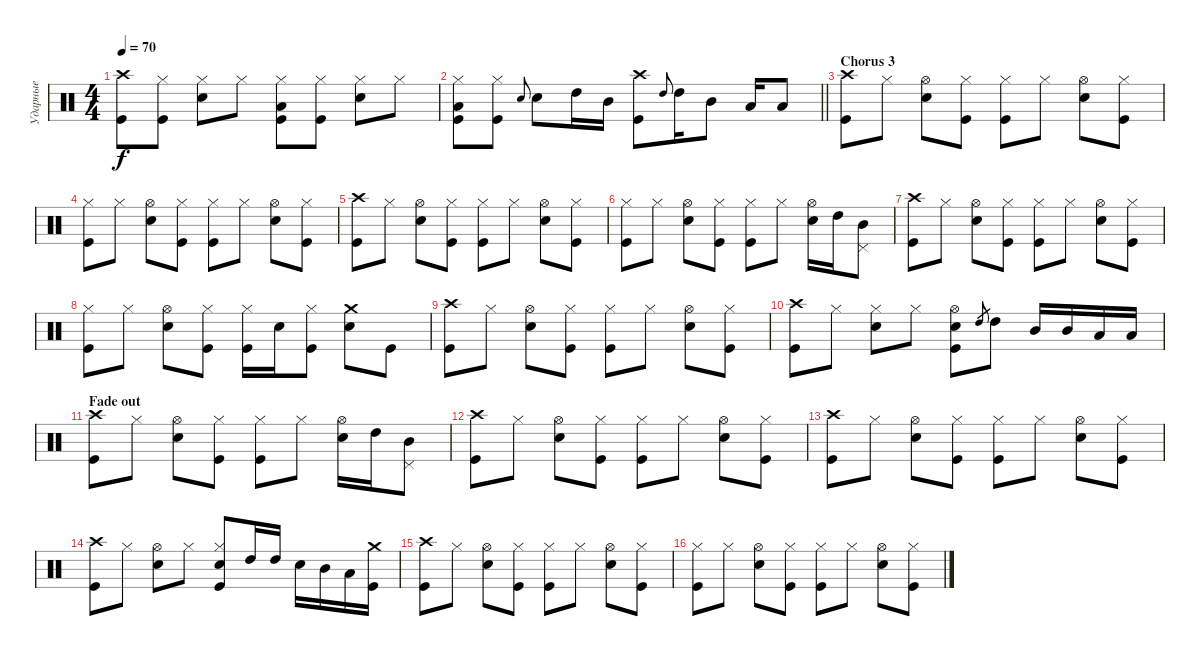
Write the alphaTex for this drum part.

\track ("Ударные" "Ударные") {instrument percussion}
\staff {score}
\articulation defaults
\ts (4 4)
\tempo 70
\clef neutral
\ks c
("Kick (hit)" "Crash high (hit)").8{dy f} ("Hi-Hat (closed)" "Kick (hit)").8 ("Hi-Hat (closed)" "Snare (hit) 2").8 "Hi-Hat (closed)".8 ("Hi-Hat (closed)" "Kick (hit)" "Low Tom (hit)").8 ("Hi-Hat (closed)" "Kick (hit)").8 ("Hi-Hat (closed)" "Snare (hit) 2").8 "Hi-Hat (closed)".8 |
\barLineRight lightlight
("Kick (hit)" "Hi-Hat (closed)" "Low Tom (hit)").8 ("Hi-Hat (closed)" "Kick (hit)").8 "Snare (hit) 2".8{gr onbeat} "Snare (hit) 2".8 "High Tom (hit)".16 "Mid Tom (hit)".16 ("Kick (hit)" "Crash high (hit)").8 "High Tom (hit)".8{gr onbeat} "High Tom (hit)".16 "Mid Tom (hit)".8 "Low Tom (hit)".16 "Low Tom (hit)".8 |
\section ("" "Chorus 3")
("Kick (hit)" "Crash high (hit)").8 "Hi-Hat (closed)".8 ("Hi-Hat (open)" "Snare (hit) 2").8 ("Hi-Hat (closed)" "Kick (hit)").8 ("Hi-Hat (closed)" "Kick (hit)").8 "Hi-Hat (closed)".8 ("Hi-Hat (open)" "Snare (hit) 2").8 ("Hi-Hat (closed)" "Kick (hit)").8 |
("Kick (hit)" "Hi-Hat (closed)").8 "Hi-Hat (closed)".8 ("Hi-Hat (open)" "Snare (hit) 2").8 ("Hi-Hat (closed)" "Kick (hit)").8 ("Hi-Hat (closed)" "Kick (hit)").8 "Hi-Hat (closed)".8 ("Hi-Hat (open)" "Snare (hit) 2").8 ("Hi-Hat (closed)" "Kick (hit)").8 |
("Kick (hit)" "Crash high (hit)").8 "Hi-Hat (closed)".8 ("Hi-Hat (open)" "Snare (hit) 2").8 ("Hi-Hat (closed)" "Kick (hit)").8 ("Hi-Hat (closed)" "Kick (hit)").8 "Hi-Hat (closed)".8 ("Hi-Hat (open)" "Snare (hit) 2").8 ("Hi-Hat (closed)" "Kick (hit)").8 |
("Kick (hit)" "Hi-Hat (closed)").8 "Hi-Hat (closed)".8 ("Hi-Hat (open)" "Snare (hit) 2").8 ("Hi-Hat (closed)" "Kick (hit)").8 ("Hi-Hat (closed)" "Kick (hit)").8 "Hi-Hat (closed)".8 ("Hi-Hat (open)" "Snare (hit) 2").16 "High Tom (hit)".16 ("Mid Tom (hit)" "Pedal Hi-Hat (hit)").8 |
("Kick (hit)" "Crash high (hit)").8 "Hi-Hat (closed)".8 ("Hi-Hat (open)" "Snare (hit) 2").8 ("Hi-Hat (closed)" "Kick (hit)").8 ("Hi-Hat (closed)" "Kick (hit)").8 "Hi-Hat (closed)".8 ("Hi-Hat (open)" "Snare (hit) 2").8 ("Hi-Hat (closed)" "Kick (hit)").8 |
("Kick (hit)" "Hi-Hat (closed)").8 "Hi-Hat (closed)".8 ("Hi-Hat (open)" "Snare (hit) 2").8 ("Hi-Hat (closed)" "Kick (hit)").8 ("Hi-Hat (closed)" "Kick (hit)").16 "Snare (hit) 2".16 ("Hi-Hat (closed)" "Kick (hit)").8 ("Crash medium (hit)" "Snare (hit) 2").8 "Kick (hit)".8 |
("Kick (hit)" "Crash high (hit)").8 "Hi-Hat (closed)".8 ("Hi-Hat (open)" "Snare (hit) 2").8 ("Hi-Hat (closed)" "Kick (hit)").8 ("Hi-Hat (closed)" "Kick (hit)").8 "Hi-Hat (closed)".8 ("Hi-Hat (open)" "Snare (hit) 2").8 ("Hi-Hat (closed)" "Kick (hit)").8 |
("Kick (hit)" "Crash high (hit)").8 "Hi-Hat (closed)".8 ("Hi-Hat (closed)" "Snare (hit) 2").8 "Hi-Hat (closed)".8 ("Hi-Hat (open)" "Snare (hit) 2" "Kick (hit)").8 "High Tom (hit)".8{gr} "High Tom (hit)".8 "Mid Tom (hit)".16 "Mid Tom (hit)".16 "Low Tom (hit)".16 "Low Tom (hit)".16 |
\section ("" "Fade out")
("Kick (hit)" "Crash high (hit)").8 "Hi-Hat (closed)".8 ("Hi-Hat (open)" "Snare (hit) 2").8 ("Hi-Hat (closed)" "Kick (hit)").8 ("Hi-Hat (closed)" "Kick (hit)").8 "Hi-Hat (closed)".8 ("Hi-Hat (open)" "Snare (hit) 2").16 "High Tom (hit)".16 ("Mid Tom (hit)" "Pedal Hi-Hat (hit)").8 |
("Kick (hit)" "Crash high (hit)").8 "Hi-Hat (closed)".8 ("Hi-Hat (open)" "Snare (hit) 2").8 ("Hi-Hat (closed)" "Kick (hit)").8 ("Hi-Hat (closed)" "Kick (hit)").8 "Hi-Hat (closed)".8 ("Hi-Hat (open)" "Snare (hit) 2").8 ("Hi-Hat (closed)" "Kick (hit)").8 |
("Kick (hit)" "Crash high (hit)").8 "Hi-Hat (closed)".8 ("Hi-Hat (open)" "Snare (hit) 2").8 ("Hi-Hat (closed)" "Kick (hit)").8 ("Hi-Hat (closed)" "Kick (hit)").8 "Hi-Hat (closed)".8 ("Hi-Hat (open)" "Snare (hit) 2").8 ("Hi-Hat (closed)" "Kick (hit)").8 |
("Kick (hit)" "Crash high (hit)").8 "Hi-Hat (closed)".8 ("Hi-Hat (open)" "Snare (hit) 2").8 "Hi-Hat (closed)".8 ("Hi-Hat (closed)" "Snare (hit) 2" "Kick (hit)").8 "High Tom (hit)".16 "High Tom (hit)".16 "Snare (hit) 2".16 "Mid Tom (hit)".16 "Low Tom (hit)".16 ("Crash medium (hit)" "Kick (hit)").16 |
("Kick (hit)" "Crash high (hit)").8 "Hi-Hat (closed)".8 ("Hi-Hat (open)" "Snare (hit) 2").8 ("Hi-Hat (closed)" "Kick (hit)").8 ("Hi-Hat (closed)" "Kick (hit)").8 "Hi-Hat (closed)".8 ("Hi-Hat (open)" "Snare (hit) 2").8 ("Hi-Hat (closed)" "Kick (hit)").8 |
("Kick (hit)" "Hi-Hat (closed)").8 "Hi-Hat (closed)".8 ("Hi-Hat (open)" "Snare (hit) 2").8 ("Hi-Hat (closed)" "Kick (hit)").8 ("Hi-Hat (closed)" "Kick (hit)").8 "Hi-Hat (closed)".8 ("Hi-Hat (open)" "Snare (hit) 2").8 ("Hi-Hat (closed)" "Kick (hit)").8
